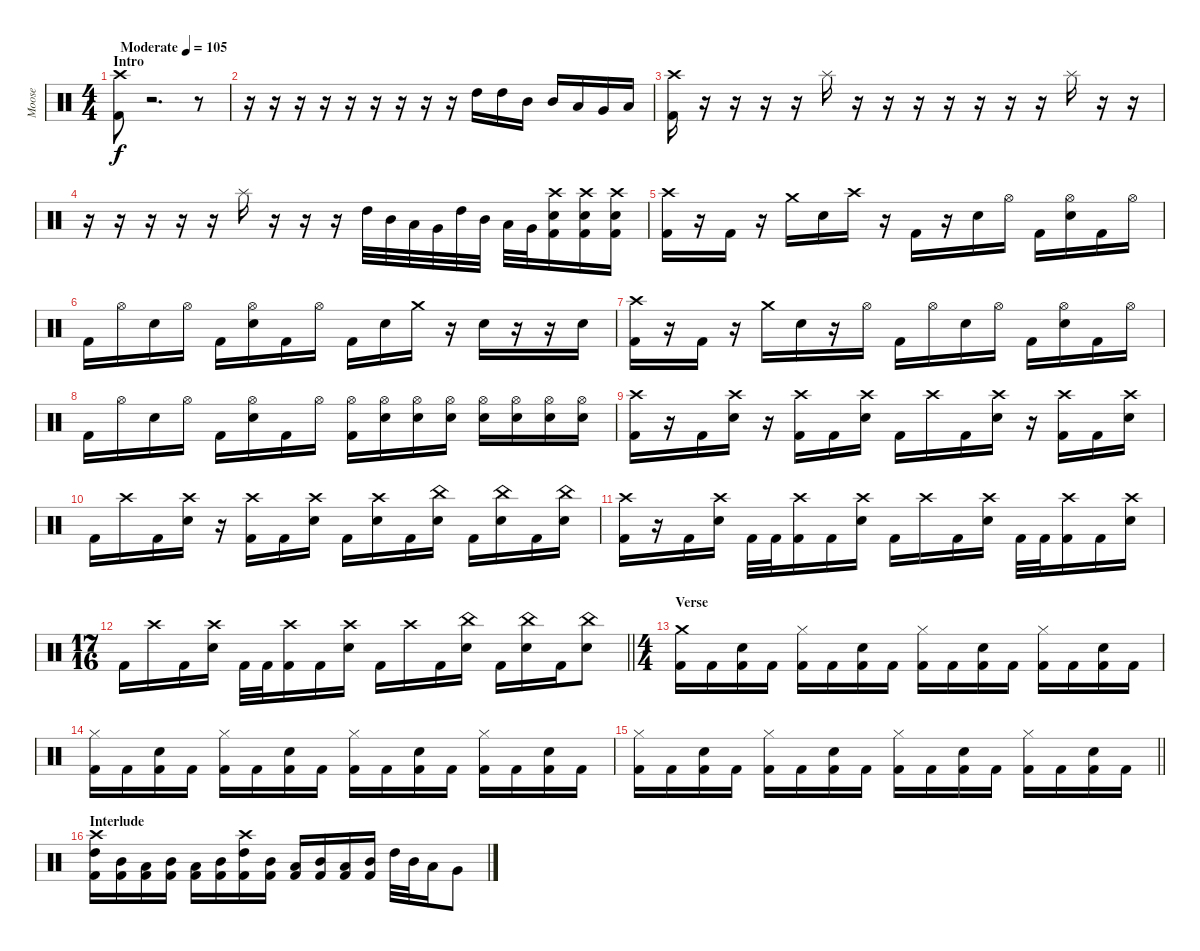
\track ("Moose" "Moose") {instrument percussion}
\staff {score}
\articulation defaults
\ts (4 4)
\section ("" "Intro")
\tempo (105 "Moderate")
\clef neutral
\ks c
("Crash high (hit)" "Kick (hit) 2").8{dy f} r.2{d} r.8 |
r.16 r.16 r.16 r.16 r.16 r.16 r.16 r.16 r.16 "High Tom (hit)".16 "High Tom (hit)".16 "Mid Tom (hit)".16 "Mid Tom (hit)".16 "Low Tom (hit)".16 "Very Low Tom (hit)".16 "Low Floor Tom (hit)".16 |
("Crash high (hit)" "Kick (hit) 2").16 r.16 r.16 r.16 r.16 "Splash (hit)".16 r.16 r.16 r.16 r.16 r.16 r.16 r.16 "Splash (hit)".16 r.16 r.16 |
r.16 r.16 r.16 r.16 r.16 "Splash (hit)".16 r.16 r.16 r.16 "High Tom (hit)".32 "Mid Tom (hit)".32 "Low Tom (hit)".32 "Very Low Tom (hit)".32 "High Tom (hit)".32 "Mid Tom (hit)".32 "Low Tom (hit)".32 "Very Low Tom (hit)".32 ("Crash high (hit)" "Electric Snare (hit)" "Kick (hit) 2").16 ("Crash high (hit)" "Electric Snare (hit)" "Kick (hit) 2").16 ("Crash high (hit)" "Electric Snare (hit)" "Kick (hit) 2").16 |
("Crash high (hit)" "Kick (hit) 2").16 r.16 "Kick (hit) 2".16 r.16 "Crash medium (hit)".16 "Electric Snare (hit)".16 "Crash high (hit)".16 r.16 "Kick (hit) 2".16 r.16 "Electric Snare (hit)".16 "Hi-Hat (open)".16 "Kick (hit) 2".16 ("Hi-Hat (open)" "Electric Snare (hit)").16 "Kick (hit) 2".16 "Hi-Hat (open)".16 |
"Kick (hit) 2".16 "Hi-Hat (open)".16 "Electric Snare (hit)".16 "Hi-Hat (open)".16 "Kick (hit) 2".16 ("Hi-Hat (open)" "Electric Snare (hit)").16 "Kick (hit) 2".16 "Hi-Hat (open)".16 "Kick (hit) 2".16 "Electric Snare (hit)".16 "Crash medium (hit)".16 r.16 "Electric Snare (hit)".16 r.16 r.16 "Electric Snare (hit)".16 |
("Crash high (hit)" "Kick (hit) 2").16 r.16 "Kick (hit) 2".16 r.16 "Crash medium (hit)".16 "Electric Snare (hit)".16 r.16 "Hi-Hat (open)".16 "Kick (hit) 2".16 "Hi-Hat (open)".16 "Electric Snare (hit)".16 "Hi-Hat (open)".16 "Kick (hit) 2".16 ("Hi-Hat (open)" "Electric Snare (hit)").16 "Kick (hit) 2".16 "Hi-Hat (open)".16 |
"Kick (hit) 2".16 "Hi-Hat (open)".16 "Electric Snare (hit)".16 "Hi-Hat (open)".16 "Kick (hit) 2".16 ("Hi-Hat (open)" "Electric Snare (hit)").16 "Kick (hit) 2".16 "Hi-Hat (open)".16 ("Hi-Hat (open)" "Kick (hit) 2").16 ("Hi-Hat (open)" "Electric Snare (hit)").16 ("Hi-Hat (open)" "Electric Snare (hit)").16 ("Hi-Hat (open)" "Electric Snare (hit)").16 ("Hi-Hat (open)" "Electric Snare (hit)").16 ("Hi-Hat (open)" "Electric Snare (hit)").16 ("Hi-Hat (open)" "Electric Snare (hit)").16 ("Hi-Hat (open)" "Electric Snare (hit)").16 |
("Crash high (hit)" "Kick (hit) 2").16 r.16 "Kick (hit) 2".16 ("Crash high (hit)" "Electric Snare (hit)").16 r.16 ("Crash high (hit)" "Kick (hit) 2").16 "Kick (hit) 2".16 ("Crash high (hit)" "Electric Snare (hit)").16 "Kick (hit) 2".16 "Crash high (hit)".16 "Kick (hit) 2".16 ("Crash high (hit)" "Electric Snare (hit)").16 r.16 ("Crash high (hit)" "Kick (hit) 2").16 "Kick (hit) 2".16 ("Crash high (hit)" "Electric Snare (hit)").16 |
"Kick (hit) 2".16 "Crash high (hit)".16 "Kick (hit) 2".16 ("Crash high (hit)" "Electric Snare (hit)").16 r.16 ("Crash high (hit)" "Kick (hit) 2").16 "Kick (hit) 2".16 ("Crash high (hit)" "Electric Snare (hit)").16 "Kick (hit) 2".16 ("Crash high (hit)" "Electric Snare (hit)").16 "Kick (hit) 2".16 ("China (hit)" "Electric Snare (hit)").16 "Kick (hit) 2".16 ("China (hit)" "Electric Snare (hit)").16 "Kick (hit) 2".16 ("China (hit)" "Electric Snare (hit)").16 |
("Crash high (hit)" "Kick (hit) 2").16 r.16 "Kick (hit) 2".16 ("Crash high (hit)" "Electric Snare (hit)").16 "Kick (hit) 2".32 "Kick (hit) 2".32 ("Crash high (hit)" "Kick (hit) 2").16 "Kick (hit) 2".16 ("Crash high (hit)" "Electric Snare (hit)").16 "Kick (hit) 2".16 "Crash high (hit)".16 "Kick (hit) 2".16 ("Crash high (hit)" "Electric Snare (hit)").16 "Kick (hit) 2".32 "Kick (hit) 2".32 ("Crash high (hit)" "Kick (hit) 2").16 "Kick (hit) 2".16 ("Crash high (hit)" "Electric Snare (hit)").16 |
\ts (17 16)
\barLineRight lightlight "Kick (hit) 2".16 "Crash high (hit)".16 "Kick (hit) 2".16
("Crash high (hit)" "Electric Snare (hit)").16 "Kick (hit) 2".32 "Kick (hit) 2".32 ("Crash high (hit)" "Kick (hit) 2").16 "Kick (hit) 2".16 ("Crash high (hit)" "Electric Snare (hit)").16 "Kick (hit) 2".16 "Crash high (hit)".16 "Kick (hit) 2".16 ("China (hit)" "Electric Snare (hit)").16 "Kick (hit) 2".16 ("China (hit)" "Electric Snare (hit)").16 "Kick (hit) 2".16 ("China (hit)" "Electric Snare (hit)").8 |
\ts (4 4)
\section ("" "Verse")
("Crash medium (hit)" "Kick (hit) 2").16 "Kick (hit) 2".16 ("Electric Snare (hit)" "Kick (hit) 2").16 "Kick (hit) 2".16 ("Hi-Hat (closed)" "Kick (hit) 2").16 "Kick (hit) 2".16 ("Electric Snare (hit)" "Kick (hit) 2").16 "Kick (hit) 2".16 ("Hi-Hat (closed)" "Kick (hit) 2").16 "Kick (hit) 2".16 ("Electric Snare (hit)" "Kick (hit) 2").16 "Kick (hit) 2".16 ("Hi-Hat (closed)" "Kick (hit) 2").16 "Kick (hit) 2".16 ("Electric Snare (hit)" "Kick (hit) 2").16 "Kick (hit) 2".16 |
("Hi-Hat (closed)" "Kick (hit) 2").16 "Kick (hit) 2".16 ("Electric Snare (hit)" "Kick (hit) 2").16 "Kick (hit) 2".16 ("Hi-Hat (closed)" "Kick (hit) 2").16 "Kick (hit) 2".16 ("Electric Snare (hit)" "Kick (hit) 2").16 "Kick (hit) 2".16 ("Hi-Hat (closed)" "Kick (hit) 2").16 "Kick (hit) 2".16 ("Electric Snare (hit)" "Kick (hit) 2").16 "Kick (hit) 2".16 ("Hi-Hat (closed)" "Kick (hit) 2").16 "Kick (hit) 2".16 ("Electric Snare (hit)" "Kick (hit) 2").16 "Kick (hit) 2".16 |
\barLineRight lightlight
("Hi-Hat (closed)" "Kick (hit) 2").16 "Kick (hit) 2".16 ("Electric Snare (hit)" "Kick (hit) 2").16 "Kick (hit) 2".16 ("Hi-Hat (closed)" "Kick (hit) 2").16 "Kick (hit) 2".16 ("Electric Snare (hit)" "Kick (hit) 2").16 "Kick (hit) 2".16 ("Hi-Hat (closed)" "Kick (hit) 2").16 "Kick (hit) 2".16 ("Electric Snare (hit)" "Kick (hit) 2").16 "Kick (hit) 2".16 ("Hi-Hat (closed)" "Kick (hit) 2").16 "Kick (hit) 2".16 ("Electric Snare (hit)" "Kick (hit) 2").16 "Kick (hit) 2".16 |
\section ("" "Interlude")
("Crash high (hit)" "High Tom (hit)" "Kick (hit) 2").16 ("Mid Tom (hit)" "Kick (hit) 2").16 ("Low Tom (hit)" "Kick (hit) 2").16 ("Mid Tom (hit)" "Kick (hit) 2").16 ("Low Tom (hit)" "Kick (hit) 2").16 ("Mid Tom (hit)" "Kick (hit) 2").16 ("Crash high (hit)" "High Tom (hit)" "Kick (hit) 2").16 ("Mid Tom (hit)" "Kick (hit) 2").16 ("Low Tom (hit)" "Kick (hit) 2").16 ("Mid Tom (hit)" "Kick (hit) 2").16 ("Low Tom (hit)" "Kick (hit) 2").16 ("Mid Tom (hit)" "Kick (hit) 2").16 "High Tom (hit)".32 "Mid Tom (hit)".32 "Low Tom (hit)".16 "Very Low Tom (hit)".8
